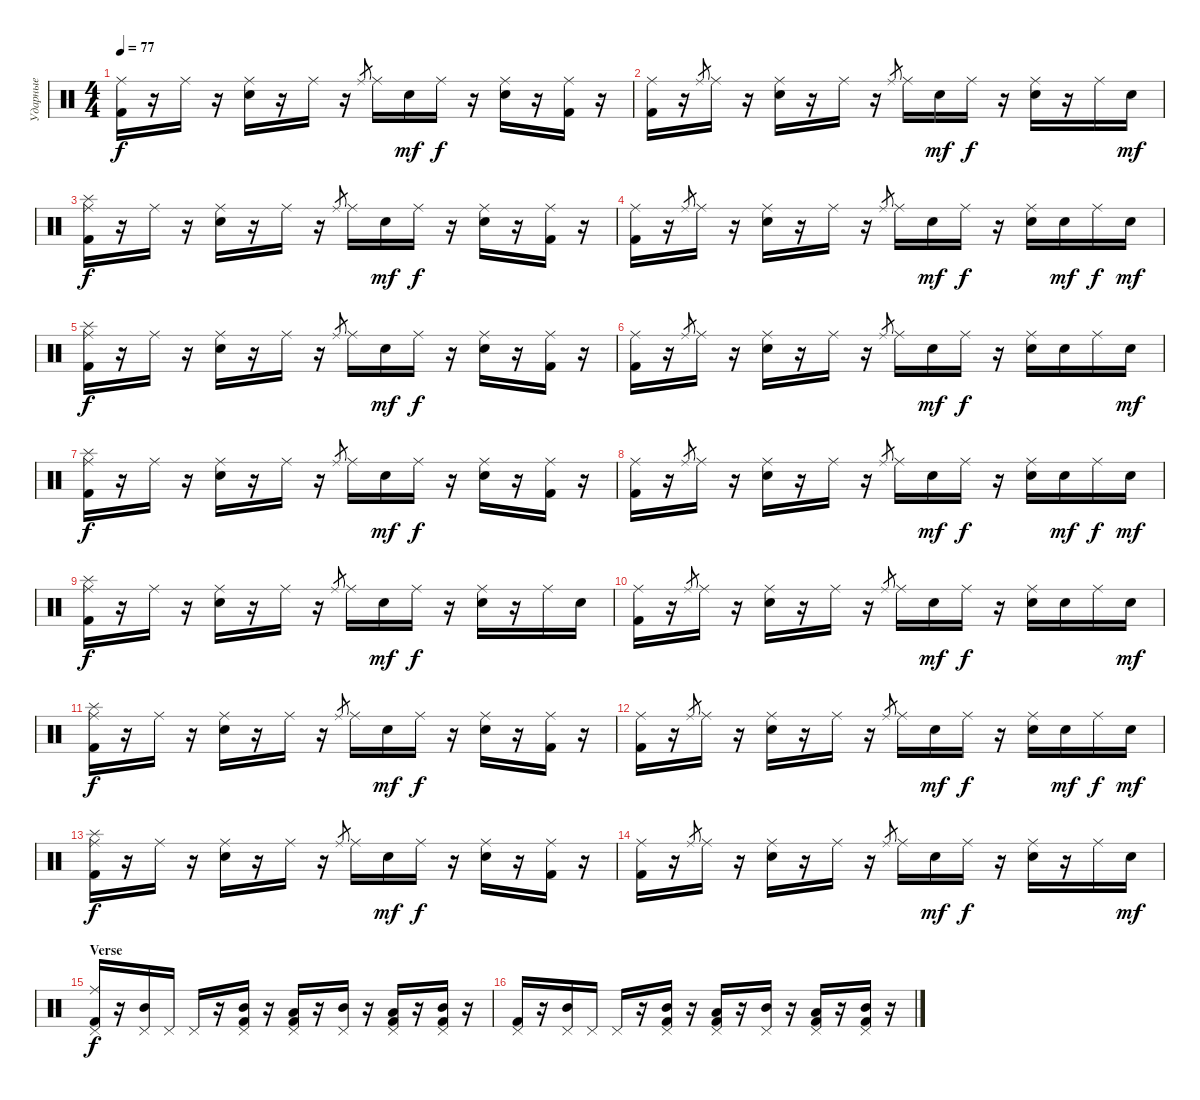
\track ("Ударные" "Ударные") {instrument percussion}
\staff {score}
\articulation defaults
\ts (4 4)
\tempo 77
\clef neutral
\ks c
("Ride (middle)" "Kick (hit) 2").16{dy f} r.16 "Ride (middle)".16 r.16 ("Ride (middle)" "Electric Snare (hit)").16 r.16 "Ride (middle)".16 r.16 "Ride (middle)".8{gr} "Ride (middle)".16 "Electric Snare (hit)".16{dy mf} "Ride (middle)".16{dy f} r.16 ("Ride (middle)" "Electric Snare (hit)").16 r.16 ("Ride (middle)" "Kick (hit) 2").16 r.16 |
("Ride (middle)" "Kick (hit) 2").16 r.16 "Ride (middle)".8{gr} "Ride (middle)".16 r.16 ("Ride (middle)" "Electric Snare (hit)").16 r.16 "Ride (middle)".16 r.16 "Ride (middle)".8{gr} "Ride (middle)".16 "Electric Snare (hit)".16{dy mf} "Ride (middle)".16{dy f} r.16 ("Ride (middle)" "Electric Snare (hit)").16 r.16 "Ride (middle)".16 "Electric Snare (hit)".16{dy mf} |
("Splash (hit)" "Ride (middle)" "Kick (hit) 2").16{dy f} r.16 "Ride (middle)".16 r.16 ("Ride (middle)" "Electric Snare (hit)").16 r.16 "Ride (middle)".16 r.16 "Ride (middle)".8{gr} "Ride (middle)".16 "Electric Snare (hit)".16{dy mf} "Ride (middle)".16{dy f} r.16 ("Ride (middle)" "Electric Snare (hit)").16 r.16 ("Ride (middle)" "Kick (hit) 2").16 r.16 |
("Ride (middle)" "Kick (hit) 2").16 r.16 "Ride (middle)".8{gr} "Ride (middle)".16 r.16 ("Ride (middle)" "Electric Snare (hit)").16 r.16 "Ride (middle)".16 r.16 "Ride (middle)".8{gr} "Ride (middle)".16 "Electric Snare (hit)".16{dy mf} "Ride (middle)".16{dy f} r.16 ("Ride (middle)" "Electric Snare (hit)").16 "Electric Snare (hit)".16{dy mf} "Ride (middle)".16{dy f} "Electric Snare (hit)".16{dy mf} |
("Splash (hit)" "Ride (middle)" "Kick (hit) 2").16{dy f} r.16 "Ride (middle)".16 r.16 ("Ride (middle)" "Electric Snare (hit)").16 r.16 "Ride (middle)".16 r.16 "Ride (middle)".8{gr} "Ride (middle)".16 "Electric Snare (hit)".16{dy mf} "Ride (middle)".16{dy f} r.16 ("Ride (middle)" "Electric Snare (hit)").16 r.16 ("Ride (middle)" "Kick (hit) 2").16 r.16 |
("Ride (middle)" "Kick (hit) 2").16 r.16 "Ride (middle)".8{gr} "Ride (middle)".16 r.16 ("Ride (middle)" "Electric Snare (hit)").16 r.16 "Ride (middle)".16 r.16 "Ride (middle)".8{gr} "Ride (middle)".16 "Electric Snare (hit)".16{dy mf} "Ride (middle)".16{dy f} r.16 ("Ride (middle)" "Electric Snare (hit)").16 "Electric Snare (hit)".16 "Ride (middle)".16 "Electric Snare (hit)".16{dy mf} |
("Splash (hit)" "Ride (middle)" "Kick (hit) 2").16{dy f} r.16 "Ride (middle)".16 r.16 ("Ride (middle)" "Electric Snare (hit)").16 r.16 "Ride (middle)".16 r.16 "Ride (middle)".8{gr} "Ride (middle)".16 "Electric Snare (hit)".16{dy mf} "Ride (middle)".16{dy f} r.16 ("Ride (middle)" "Electric Snare (hit)").16 r.16 ("Ride (middle)" "Kick (hit) 2").16 r.16 |
("Ride (middle)" "Kick (hit) 2").16 r.16 "Ride (middle)".8{gr} "Ride (middle)".16 r.16 ("Ride (middle)" "Electric Snare (hit)").16 r.16 "Ride (middle)".16 r.16 "Ride (middle)".8{gr} "Ride (middle)".16 "Electric Snare (hit)".16{dy mf} "Ride (middle)".16{dy f} r.16 ("Ride (middle)" "Electric Snare (hit)").16 "Electric Snare (hit)".16{dy mf} "Ride (middle)".16{dy f} "Electric Snare (hit)".16{dy mf} |
("Splash (hit)" "Ride (middle)" "Kick (hit) 2").16{dy f} r.16 "Ride (middle)".16 r.16 ("Ride (middle)" "Electric Snare (hit)").16 r.16 "Ride (middle)".16 r.16 "Ride (middle)".8{gr} "Ride (middle)".16 "Electric Snare (hit)".16{dy mf} "Ride (middle)".16{dy f} r.16 ("Ride (middle)" "Electric Snare (hit)").16 r.16 "Ride (middle)".16 "Electric Snare (hit)".16 |
("Ride (middle)" "Kick (hit) 2").16 r.16 "Ride (middle)".8{gr} "Ride (middle)".16 r.16 ("Ride (middle)" "Electric Snare (hit)").16 r.16 "Ride (middle)".16 r.16 "Ride (middle)".8{gr} "Ride (middle)".16 "Electric Snare (hit)".16{dy mf} "Ride (middle)".16{dy f} r.16 ("Ride (middle)" "Electric Snare (hit)").16 "Electric Snare (hit)".16 "Ride (middle)".16 "Electric Snare (hit)".16{dy mf} |
("Splash (hit)" "Ride (middle)" "Kick (hit) 2").16{dy f} r.16 "Ride (middle)".16 r.16 ("Ride (middle)" "Electric Snare (hit)").16 r.16 "Ride (middle)".16 r.16 "Ride (middle)".8{gr} "Ride (middle)".16 "Electric Snare (hit)".16{dy mf} "Ride (middle)".16{dy f} r.16 ("Ride (middle)" "Electric Snare (hit)").16 r.16 ("Ride (middle)" "Kick (hit) 2").16 r.16 |
("Ride (middle)" "Kick (hit) 2").16 r.16 "Ride (middle)".8{gr} "Ride (middle)".16 r.16 ("Ride (middle)" "Electric Snare (hit)").16 r.16 "Ride (middle)".16 r.16 "Ride (middle)".8{gr} "Ride (middle)".16 "Electric Snare (hit)".16{dy mf} "Ride (middle)".16{dy f} r.16 ("Ride (middle)" "Electric Snare (hit)").16 "Electric Snare (hit)".16{dy mf} "Ride (middle)".16{dy f} "Electric Snare (hit)".16{dy mf} |
("Splash (hit)" "Ride (middle)" "Kick (hit) 2").16{dy f} r.16 "Ride (middle)".16 r.16 ("Ride (middle)" "Electric Snare (hit)").16 r.16 "Ride (middle)".16 r.16 "Ride (middle)".8{gr} "Ride (middle)".16 "Electric Snare (hit)".16{dy mf} "Ride (middle)".16{dy f} r.16 ("Ride (middle)" "Electric Snare (hit)").16 r.16 ("Ride (middle)" "Kick (hit) 2").16 r.16 |
("Ride (middle)" "Kick (hit) 2").16 r.16 "Ride (middle)".8{gr} "Ride (middle)".16 r.16 ("Ride (middle)" "Electric Snare (hit)").16 r.16 "Ride (middle)".16 r.16 "Ride (middle)".8{gr} "Ride (middle)".16 "Electric Snare (hit)".16{dy mf} "Ride (middle)".16{dy f} r.16 ("Ride (middle)" "Electric Snare (hit)").16 r.16 "Ride (middle)".16 "Electric Snare (hit)".16{dy mf} |
\section ("" "Verse")
("Ride (middle)" "Pedal Hi-Hat (hit)" "Kick (hit) 2").16{dy f} r.16 ("Pedal Hi-Hat (hit)" "Mid Tom (hit)").16 "Pedal Hi-Hat (hit)".16 "Pedal Hi-Hat (hit)".16 r.16 ("Pedal Hi-Hat (hit)" "Mid Tom (hit)" "Kick (hit) 2").16 r.16 ("Pedal Hi-Hat (hit)" "Low Tom (hit)" "Kick (hit) 2").16 r.16 ("Pedal Hi-Hat (hit)" "Mid Tom (hit)").16 r.16 ("Pedal Hi-Hat (hit)" "Low Tom (hit)" "Kick (hit) 2").16 r.16 ("Pedal Hi-Hat (hit)" "Mid Tom (hit)" "Kick (hit) 2").16 r.16 |
("Pedal Hi-Hat (hit)" "Kick (hit) 2").16 r.16 ("Pedal Hi-Hat (hit)" "Mid Tom (hit)").16 "Pedal Hi-Hat (hit)".16 "Pedal Hi-Hat (hit)".16 r.16 ("Pedal Hi-Hat (hit)" "Mid Tom (hit)" "Kick (hit) 2").16 r.16 ("Pedal Hi-Hat (hit)" "Low Tom (hit)" "Kick (hit) 2").16 r.16 ("Pedal Hi-Hat (hit)" "Mid Tom (hit)").16 r.16 ("Pedal Hi-Hat (hit)" "Low Tom (hit)" "Kick (hit) 2").16 r.16 ("Pedal Hi-Hat (hit)" "Mid Tom (hit)" "Kick (hit) 2").16 r.16
